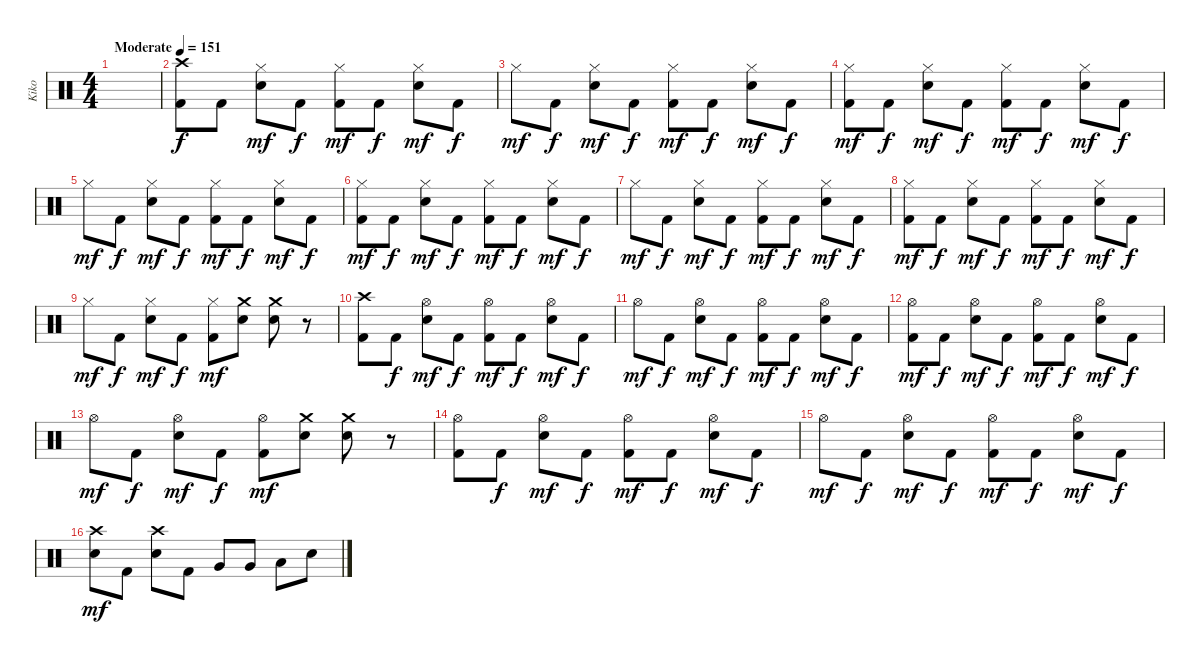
\track ("Kiko" "Kiko") {instrument percussion}
\staff {score}
\articulation defaults
\ts (4 4)
\tempo (151 "Moderate")
\clef neutral
\ks c
|
("Crash high (hit)" "Kick (hit) 2").8 "Kick (hit) 2".8{dy f} ("Hi-Hat (closed)" "Electric Snare (hit)").8{dy mf} "Kick (hit) 2".8{dy f} ("Hi-Hat (closed)" "Kick (hit) 2").8{dy mf} "Kick (hit) 2".8{dy f} ("Hi-Hat (closed)" "Electric Snare (hit)").8{dy mf} "Kick (hit) 2".8{dy f} |
"Hi-Hat (closed)".8{dy mf} "Kick (hit) 2".8{dy f} ("Hi-Hat (closed)" "Electric Snare (hit)").8{dy mf} "Kick (hit) 2".8{dy f} ("Hi-Hat (closed)" "Kick (hit) 2").8{dy mf} "Kick (hit) 2".8{dy f} ("Hi-Hat (closed)" "Electric Snare (hit)").8{dy mf} "Kick (hit) 2".8{dy f} |
("Hi-Hat (closed)" "Kick (hit) 2").8{dy mf} "Kick (hit) 2".8{dy f} ("Hi-Hat (closed)" "Electric Snare (hit)").8{dy mf} "Kick (hit) 2".8{dy f} ("Hi-Hat (closed)" "Kick (hit) 2").8{dy mf} "Kick (hit) 2".8{dy f} ("Hi-Hat (closed)" "Electric Snare (hit)").8{dy mf} "Kick (hit) 2".8{dy f} |
"Hi-Hat (closed)".8{dy mf} "Kick (hit) 2".8{dy f} ("Hi-Hat (closed)" "Electric Snare (hit)").8{dy mf} "Kick (hit) 2".8{dy f} ("Hi-Hat (closed)" "Kick (hit) 2").8{dy mf} "Kick (hit) 2".8{dy f} ("Hi-Hat (closed)" "Electric Snare (hit)").8{dy mf} "Kick (hit) 2".8{dy f} |
("Hi-Hat (closed)" "Kick (hit) 2").8{dy mf} "Kick (hit) 2".8{dy f} ("Hi-Hat (closed)" "Electric Snare (hit)").8{dy mf} "Kick (hit) 2".8{dy f} ("Hi-Hat (closed)" "Kick (hit) 2").8{dy mf} "Kick (hit) 2".8{dy f} ("Hi-Hat (closed)" "Electric Snare (hit)").8{dy mf} "Kick (hit) 2".8{dy f} |
"Hi-Hat (closed)".8{dy mf} "Kick (hit) 2".8{dy f} ("Hi-Hat (closed)" "Electric Snare (hit)").8{dy mf} "Kick (hit) 2".8{dy f} ("Hi-Hat (closed)" "Kick (hit) 2").8{dy mf} "Kick (hit) 2".8{dy f} ("Hi-Hat (closed)" "Electric Snare (hit)").8{dy mf} "Kick (hit) 2".8{dy f} |
("Hi-Hat (closed)" "Kick (hit) 2").8{dy mf} "Kick (hit) 2".8{dy f} ("Hi-Hat (closed)" "Electric Snare (hit)").8{dy mf} "Kick (hit) 2".8{dy f} ("Hi-Hat (closed)" "Kick (hit) 2").8{dy mf} "Kick (hit) 2".8{dy f} ("Hi-Hat (closed)" "Electric Snare (hit)").8{dy mf} "Kick (hit) 2".8{dy f} |
"Hi-Hat (closed)".8{dy mf} "Kick (hit) 2".8{dy f} ("Hi-Hat (closed)" "Electric Snare (hit)").8{dy mf} "Kick (hit) 2".8{dy f} ("Hi-Hat (closed)" "Kick (hit) 2").8{dy mf} ("Crash medium (hit)" "Electric Snare (hit)").8 ("Crash medium (hit)" "Electric Snare (hit)").8 r.8 |
("Crash high (hit)" "Kick (hit) 2").8 "Kick (hit) 2".8{dy f} ("Hi-Hat (open)" "Electric Snare (hit)").8{dy mf} "Kick (hit) 2".8{dy f} ("Hi-Hat (open)" "Kick (hit) 2").8{dy mf} "Kick (hit) 2".8{dy f} ("Hi-Hat (open)" "Electric Snare (hit)").8{dy mf} "Kick (hit) 2".8{dy f} |
"Hi-Hat (open)".8{dy mf} "Kick (hit) 2".8{dy f} ("Hi-Hat (open)" "Electric Snare (hit)").8{dy mf} "Kick (hit) 2".8{dy f} ("Hi-Hat (open)" "Kick (hit) 2").8{dy mf} "Kick (hit) 2".8{dy f} ("Hi-Hat (open)" "Electric Snare (hit)").8{dy mf} "Kick (hit) 2".8{dy f} |
("Hi-Hat (open)" "Kick (hit) 2").8{dy mf} "Kick (hit) 2".8{dy f} ("Hi-Hat (open)" "Electric Snare (hit)").8{dy mf} "Kick (hit) 2".8{dy f} ("Hi-Hat (open)" "Kick (hit) 2").8{dy mf} "Kick (hit) 2".8{dy f} ("Hi-Hat (open)" "Electric Snare (hit)").8{dy mf} "Kick (hit) 2".8{dy f} |
"Hi-Hat (open)".8{dy mf} "Kick (hit) 2".8{dy f} ("Hi-Hat (open)" "Electric Snare (hit)").8{dy mf} "Kick (hit) 2".8{dy f} ("Hi-Hat (open)" "Kick (hit) 2").8{dy mf} ("Crash medium (hit)" "Electric Snare (hit)").8 ("Crash medium (hit)" "Electric Snare (hit)").8 r.8 |
("Hi-Hat (open)" "Kick (hit) 2").8 "Kick (hit) 2".8{dy f} ("Hi-Hat (open)" "Electric Snare (hit)").8{dy mf} "Kick (hit) 2".8{dy f} ("Hi-Hat (open)" "Kick (hit) 2").8{dy mf} "Kick (hit) 2".8{dy f} ("Hi-Hat (open)" "Electric Snare (hit)").8{dy mf} "Kick (hit) 2".8{dy f} |
"Hi-Hat (open)".8{dy mf} "Kick (hit) 2".8{dy f} ("Hi-Hat (open)" "Electric Snare (hit)").8{dy mf} "Kick (hit) 2".8{dy f} ("Hi-Hat (open)" "Kick (hit) 2").8{dy mf} "Kick (hit) 2".8{dy f} ("Hi-Hat (open)" "Electric Snare (hit)").8{dy mf} "Kick (hit) 2".8{dy f} |
("Crash high (hit)" "Electric Snare (hit)").8{dy mf} "Kick (hit) 2".8 ("Crash high (hit)" "Electric Snare (hit)").8 "Kick (hit) 2".8 "Very Low Tom (hit)".8 "Very Low Tom (hit)".8 "Low Tom (hit)".8 "Electric Snare (hit)".8
